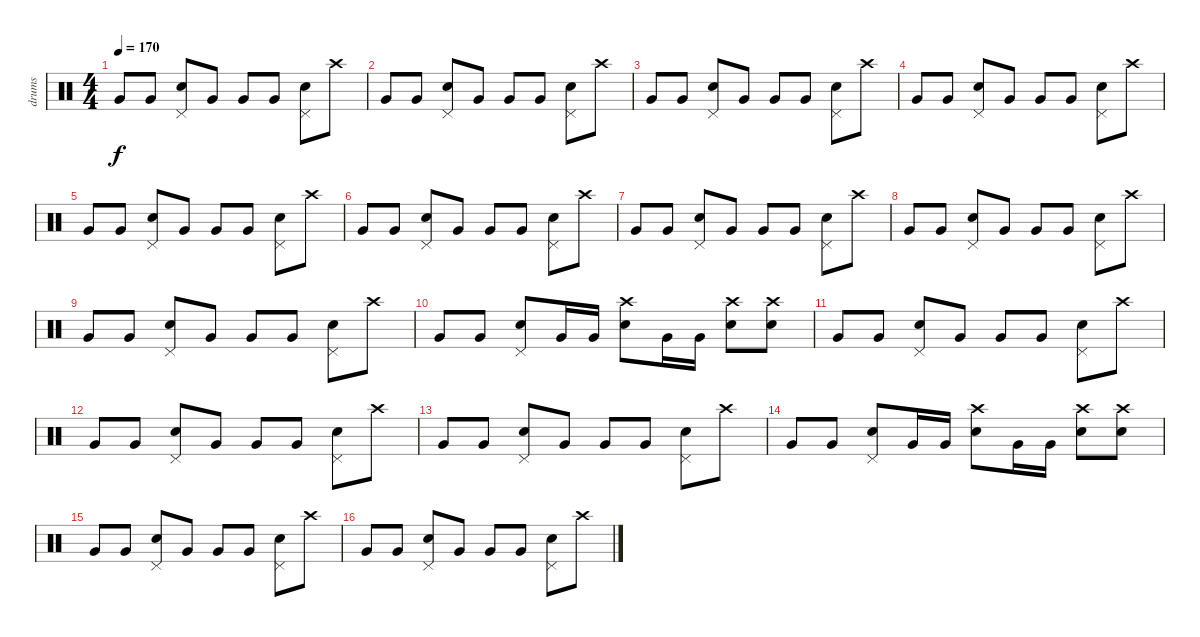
\track ("drums" "drums") {instrument percussion}
\staff {score}
\articulation defaults
\ts (4 4)
\tempo 170
\clef neutral
\ks c "Very Low Tom (hit)".8{dy f} "Very Low Tom (hit)".8
("Snare (hit) 2" "Pedal Hi-Hat (hit)").8 "Very Low Tom (hit)".8 "Very Low Tom (hit)".8 "Very Low Tom (hit)".8 ("Snare (hit) 2" "Pedal Hi-Hat (hit)").8 "Crash high (hit)".8 |
"Very Low Tom (hit)".8 "Very Low Tom (hit)".8 ("Snare (hit) 2" "Pedal Hi-Hat (hit)").8 "Very Low Tom (hit)".8 "Very Low Tom (hit)".8 "Very Low Tom (hit)".8 ("Snare (hit) 2" "Pedal Hi-Hat (hit)").8 "Crash high (hit)".8 |
"Very Low Tom (hit)".8 "Very Low Tom (hit)".8 ("Snare (hit) 2" "Pedal Hi-Hat (hit)").8 "Very Low Tom (hit)".8 "Very Low Tom (hit)".8 "Very Low Tom (hit)".8 ("Snare (hit) 2" "Pedal Hi-Hat (hit)").8 "Crash high (hit)".8 |
"Very Low Tom (hit)".8 "Very Low Tom (hit)".8 ("Snare (hit) 2" "Pedal Hi-Hat (hit)").8 "Very Low Tom (hit)".8 "Very Low Tom (hit)".8 "Very Low Tom (hit)".8 ("Snare (hit) 2" "Pedal Hi-Hat (hit)").8 "Crash high (hit)".8 |
"Very Low Tom (hit)".8 "Very Low Tom (hit)".8 ("Snare (hit) 2" "Pedal Hi-Hat (hit)").8 "Very Low Tom (hit)".8 "Very Low Tom (hit)".8 "Very Low Tom (hit)".8 ("Snare (hit) 2" "Pedal Hi-Hat (hit)").8 "Crash high (hit)".8 |
"Very Low Tom (hit)".8 "Very Low Tom (hit)".8 ("Snare (hit) 2" "Pedal Hi-Hat (hit)").8 "Very Low Tom (hit)".8 "Very Low Tom (hit)".8 "Very Low Tom (hit)".8 ("Snare (hit) 2" "Pedal Hi-Hat (hit)").8 "Crash high (hit)".8 |
"Very Low Tom (hit)".8 "Very Low Tom (hit)".8 ("Snare (hit) 2" "Pedal Hi-Hat (hit)").8 "Very Low Tom (hit)".8 "Very Low Tom (hit)".8 "Very Low Tom (hit)".8 ("Snare (hit) 2" "Pedal Hi-Hat (hit)").8 "Crash high (hit)".8 |
"Very Low Tom (hit)".8 "Very Low Tom (hit)".8 ("Snare (hit) 2" "Pedal Hi-Hat (hit)").8 "Very Low Tom (hit)".8 "Very Low Tom (hit)".8 "Very Low Tom (hit)".8 ("Snare (hit) 2" "Pedal Hi-Hat (hit)").8 "Crash high (hit)".8 |
"Very Low Tom (hit)".8 "Very Low Tom (hit)".8 ("Snare (hit) 2" "Pedal Hi-Hat (hit)").8 "Very Low Tom (hit)".8 "Very Low Tom (hit)".8 "Very Low Tom (hit)".8 ("Snare (hit) 2" "Pedal Hi-Hat (hit)").8 "Crash high (hit)".8 |
"Very Low Tom (hit)".8 "Very Low Tom (hit)".8 ("Snare (hit) 2" "Pedal Hi-Hat (hit)").8 "Very Low Tom (hit)".16 "Very Low Tom (hit)".16 ("Snare (hit) 2" "Crash high (hit)").8 "Very Low Tom (hit)".16 "Very Low Tom (hit)".16 ("Snare (hit) 2" "Crash high (hit)").8 ("Snare (hit) 2" "Crash high (hit)").8 |
"Very Low Tom (hit)".8 "Very Low Tom (hit)".8 ("Snare (hit) 2" "Pedal Hi-Hat (hit)").8 "Very Low Tom (hit)".8 "Very Low Tom (hit)".8 "Very Low Tom (hit)".8 ("Snare (hit) 2" "Pedal Hi-Hat (hit)").8 "Crash high (hit)".8 |
"Very Low Tom (hit)".8 "Very Low Tom (hit)".8 ("Snare (hit) 2" "Pedal Hi-Hat (hit)").8 "Very Low Tom (hit)".8 "Very Low Tom (hit)".8 "Very Low Tom (hit)".8 ("Snare (hit) 2" "Pedal Hi-Hat (hit)").8 "Crash high (hit)".8 |
"Very Low Tom (hit)".8 "Very Low Tom (hit)".8 ("Snare (hit) 2" "Pedal Hi-Hat (hit)").8 "Very Low Tom (hit)".8 "Very Low Tom (hit)".8 "Very Low Tom (hit)".8 ("Snare (hit) 2" "Pedal Hi-Hat (hit)").8 "Crash high (hit)".8 |
"Very Low Tom (hit)".8 "Very Low Tom (hit)".8 ("Snare (hit) 2" "Pedal Hi-Hat (hit)").8 "Very Low Tom (hit)".16 "Very Low Tom (hit)".16 ("Snare (hit) 2" "Crash high (hit)").8 "Very Low Tom (hit)".16 "Very Low Tom (hit)".16 ("Snare (hit) 2" "Crash high (hit)").8 ("Snare (hit) 2" "Crash high (hit)").8 |
"Very Low Tom (hit)".8 "Very Low Tom (hit)".8 ("Snare (hit) 2" "Pedal Hi-Hat (hit)").8 "Very Low Tom (hit)".8 "Very Low Tom (hit)".8 "Very Low Tom (hit)".8 ("Snare (hit) 2" "Pedal Hi-Hat (hit)").8 "Crash high (hit)".8 |
"Very Low Tom (hit)".8 "Very Low Tom (hit)".8 ("Snare (hit) 2" "Pedal Hi-Hat (hit)").8 "Very Low Tom (hit)".8 "Very Low Tom (hit)".8 "Very Low Tom (hit)".8 ("Snare (hit) 2" "Pedal Hi-Hat (hit)").8 "Crash high (hit)".8
